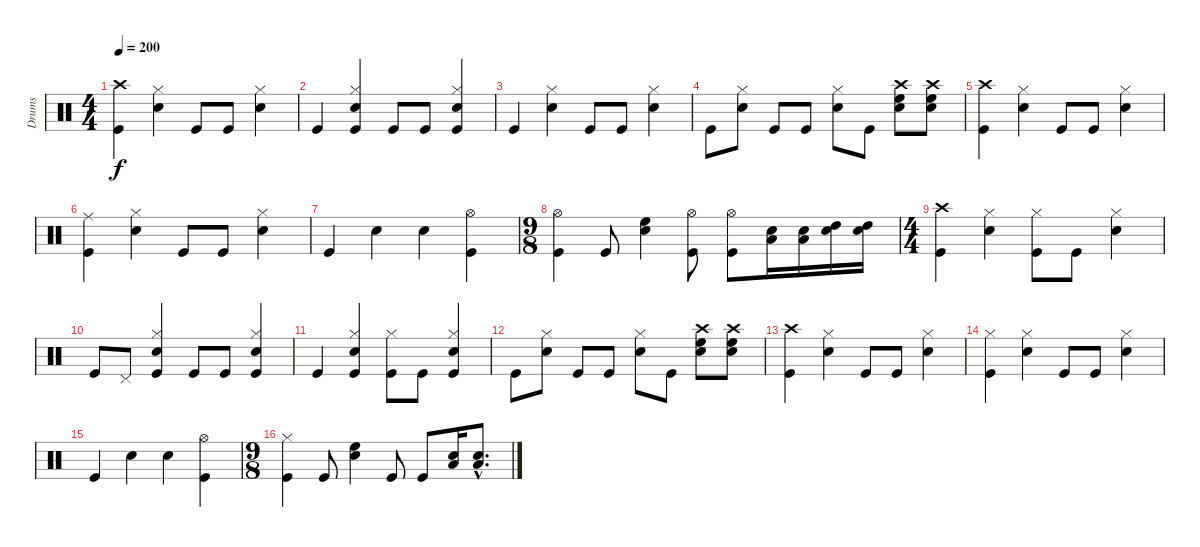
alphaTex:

\track ("Drums" "Drums") {instrument percussion}
\staff {score}
\articulation defaults
\ts (4 4)
\tempo 200
\clef neutral
\ks c
("Crash high (hit)" "Kick (hit)").4{dy f} ("Hi-Hat (closed)" "Snare (hit) 2").4 "Kick (hit)".8 "Kick (hit)".8 ("Hi-Hat (closed)" "Snare (hit) 2").4 |
"Kick (hit)".4 ("Hi-Hat (closed)" "Snare (hit) 2" "Kick (hit)").4 "Kick (hit)".8 "Kick (hit)".8 ("Hi-Hat (closed)" "Snare (hit) 2" "Kick (hit)").4 |
"Kick (hit)".4 ("Hi-Hat (closed)" "Snare (hit) 2").4 "Kick (hit)".8 "Kick (hit)".8 ("Hi-Hat (closed)" "Snare (hit) 2").4 |
"Kick (hit)".8 ("Hi-Hat (closed)" "Snare (hit) 2").8 "Kick (hit)".8 "Kick (hit)".8 ("Hi-Hat (closed)" "Snare (hit) 2").8 "Kick (hit)".8 ("Crash high (hit)" "Snare (hit) 2" "High Floor Tom (hit)").8 ("Crash high (hit)" "Snare (hit) 2" "High Floor Tom (hit)").8 |
("Crash high (hit)" "Kick (hit)").4 ("Hi-Hat (closed)" "Snare (hit) 2").4 "Kick (hit)".8 "Kick (hit)".8 ("Hi-Hat (closed)" "Snare (hit) 2").4 |
("Ride (middle)" "Kick (hit)").4 ("Hi-Hat (closed)" "Snare (hit) 2").4 "Kick (hit)".8 "Kick (hit)".8 ("Hi-Hat (closed)" "Snare (hit) 2").4 |
"Kick (hit)".4 "Snare (hit) 2".4 "Snare (hit) 2".4 ("Hi-Hat (open)" "Kick (hit)").4 |
\ts (9 8)
("Hi-Hat (open)" "Kick (hit)").4 "Kick (hit)".8 ("Snare (hit) 2" "High Floor Tom (hit)").4 ("Hi-Hat (open)" "Kick (hit)").8 ("Hi-Hat (open)" "Kick (hit)").8 ("Snare (hit) 2" "Low Tom (hit)").16 ("Snare (hit) 2" "Low Tom (hit)").16 ("Snare (hit) 2" "High Tom (hit)").16 ("Snare (hit) 2" "High Tom (hit)").16 |
\ts (4 4)
("Crash high (hit)" "Kick (hit)").4 ("Hi-Hat (closed)" "Snare (hit) 2").4 ("Hi-Hat (closed)" "Kick (hit)").8 "Kick (hit)".8 ("Hi-Hat (closed)" "Snare (hit) 2").4 |
"Kick (hit)".8 "Pedal Hi-Hat (hit)".8 ("Hi-Hat (closed)" "Snare (hit) 2" "Kick (hit)").4 "Kick (hit)".8 "Kick (hit)".8 ("Hi-Hat (closed)" "Snare (hit) 2" "Kick (hit)").4 |
"Kick (hit)".4 ("Hi-Hat (closed)" "Snare (hit) 2" "Kick (hit)").4 ("Hi-Hat (closed)" "Kick (hit)").8 "Kick (hit)".8 ("Hi-Hat (closed)" "Snare (hit) 2" "Kick (hit)").4 |
"Kick (hit)".8 ("Hi-Hat (closed)" "Snare (hit) 2").8 "Kick (hit)".8 "Kick (hit)".8 ("Hi-Hat (closed)" "Snare (hit) 2").8 "Kick (hit)".8 ("Crash high (hit)" "Snare (hit) 2" "High Floor Tom (hit)").8 ("Crash high (hit)" "Snare (hit) 2" "High Floor Tom (hit)").8 |
("Crash high (hit)" "Kick (hit)").4 ("Hi-Hat (closed)" "Snare (hit) 2").4 "Kick (hit)".8 "Kick (hit)".8 ("Hi-Hat (closed)" "Snare (hit) 2").4 |
("Hi-Hat (closed)" "Kick (hit)").4 ("Hi-Hat (closed)" "Snare (hit) 2").4 "Kick (hit)".8 "Kick (hit)".8 ("Hi-Hat (closed)" "Snare (hit) 2").4 |
"Kick (hit)".4 "Snare (hit) 2".4 "Snare (hit) 2".4 ("Hi-Hat (open)" "Kick (hit)").4 |
\ts (9 8)
("Hi-Hat (closed)" "Kick (hit)").4 "Kick (hit)".8 ("Snare (hit) 2" "High Floor Tom (hit)").4 "Kick (hit)".8 "Kick (hit)".8 ("Snare (hit) 2" "Low Tom (hit)").16 ("Snare (hit) 2"{hac} "Low Tom (hit)"{hac}).8{d}
